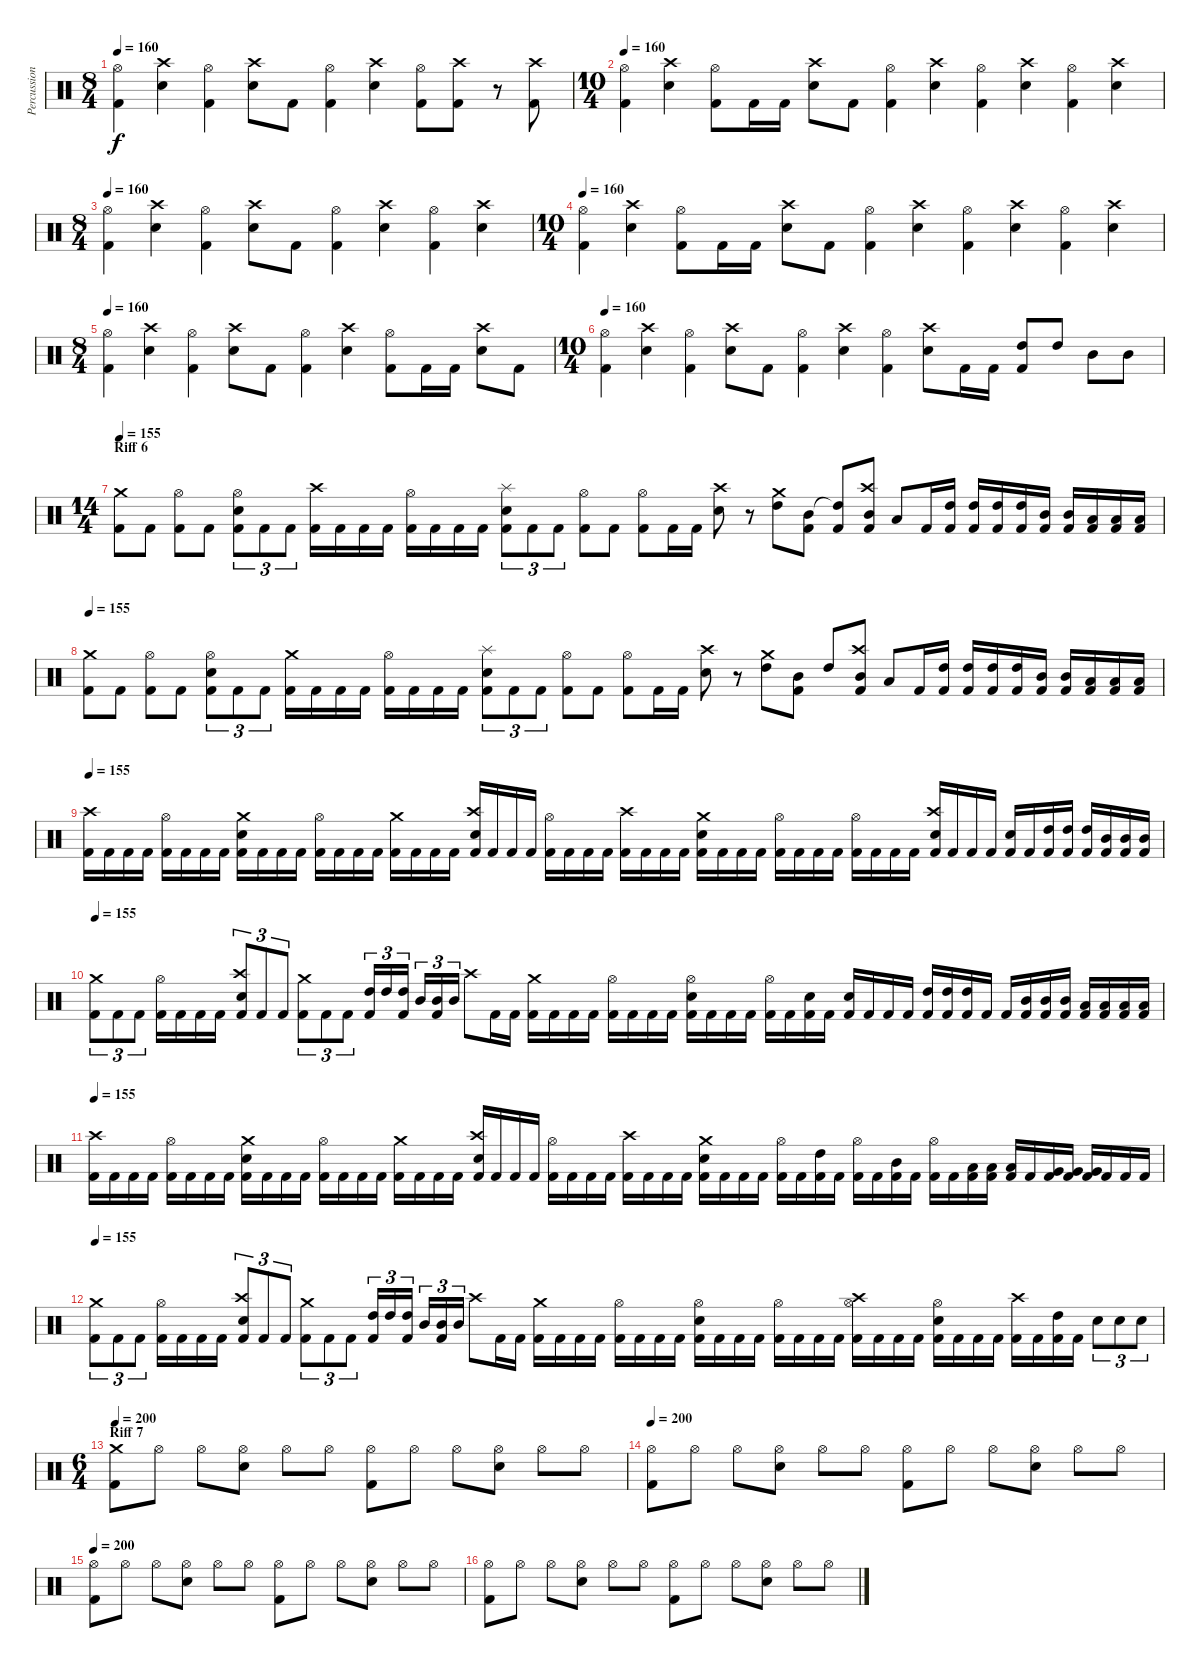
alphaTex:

\track ("Percussion" "Percussion") {instrument percussion}
\staff {score}
\articulation defaults
\ts (8 4)
\tempo 160
\clef neutral
\ks c
("Hi-Hat (open)" "Kick (hit) 2").4{dy f} ("Crash high (hit)" "Electric Snare (hit)").4 ("Hi-Hat (open)" "Kick (hit) 2").4 ("Crash high (hit)" "Electric Snare (hit)").8 "Kick (hit) 2".8 ("Hi-Hat (open)" "Kick (hit) 2").4 ("Crash high (hit)" "Electric Snare (hit)").4 ("Hi-Hat (open)" "Kick (hit) 2").8 ("Crash high (hit)" "Kick (hit) 2").8 r.8 ("Crash high (hit)" "Kick (hit) 2").8 |
\ts (10 4)
\tempo 160
("Hi-Hat (open)" "Kick (hit) 2").4 ("Crash high (hit)" "Electric Snare (hit)").4 ("Hi-Hat (open)" "Kick (hit) 2").8 "Kick (hit) 2".16 "Kick (hit) 2".16 ("Crash high (hit)" "Electric Snare (hit)").8 "Kick (hit) 2".8 ("Hi-Hat (open)" "Kick (hit) 2").4 ("Crash high (hit)" "Electric Snare (hit)").4 ("Hi-Hat (open)" "Kick (hit) 2").4 ("Crash high (hit)" "Electric Snare (hit)").4 ("Hi-Hat (open)" "Kick (hit) 2").4 ("Crash high (hit)" "Electric Snare (hit)").4 |
\ts (8 4)
\tempo 160
("Hi-Hat (open)" "Kick (hit) 2").4 ("Crash high (hit)" "Electric Snare (hit)").4 ("Hi-Hat (open)" "Kick (hit) 2").4 ("Crash high (hit)" "Electric Snare (hit)").8 "Kick (hit) 2".8 ("Hi-Hat (open)" "Kick (hit) 2").4 ("Crash high (hit)" "Electric Snare (hit)").4 ("Hi-Hat (open)" "Kick (hit) 2").4 ("Crash high (hit)" "Electric Snare (hit)").4 |
\ts (10 4)
\tempo 160
("Hi-Hat (open)" "Kick (hit) 2").4 ("Crash high (hit)" "Electric Snare (hit)").4 ("Hi-Hat (open)" "Kick (hit) 2").8 "Kick (hit) 2".16 "Kick (hit) 2".16 ("Crash high (hit)" "Electric Snare (hit)").8 "Kick (hit) 2".8 ("Hi-Hat (open)" "Kick (hit) 2").4 ("Crash high (hit)" "Electric Snare (hit)").4 ("Hi-Hat (open)" "Kick (hit) 2").4 ("Crash high (hit)" "Electric Snare (hit)").4 ("Hi-Hat (open)" "Kick (hit) 2").4 ("Crash high (hit)" "Electric Snare (hit)").4 |
\ts (8 4)
\tempo 160
("Hi-Hat (open)" "Kick (hit) 2").4 ("Crash high (hit)" "Electric Snare (hit)").4 ("Hi-Hat (open)" "Kick (hit) 2").4 ("Crash high (hit)" "Electric Snare (hit)").8 "Kick (hit) 2".8 ("Hi-Hat (open)" "Kick (hit) 2").4 ("Crash high (hit)" "Electric Snare (hit)").4 ("Hi-Hat (open)" "Kick (hit) 2").8 "Kick (hit) 2".16 "Kick (hit) 2".16 ("Crash high (hit)" "Electric Snare (hit)").8 "Kick (hit) 2".8 |
\ts (10 4)
\tempo 160
("Hi-Hat (open)" "Kick (hit) 2").4 ("Crash high (hit)" "Electric Snare (hit)").4 ("Hi-Hat (open)" "Kick (hit) 2").4 ("Crash high (hit)" "Electric Snare (hit)").8 "Kick (hit) 2".8 ("Hi-Hat (open)" "Kick (hit) 2").4 ("Crash high (hit)" "Electric Snare (hit)").4 ("Hi-Hat (open)" "Kick (hit) 2").4 ("Crash high (hit)" "Electric Snare (hit)").8 "Kick (hit) 2".16 "Kick (hit) 2".16 ("High Tom (hit)" "Kick (hit) 2").8 "High Tom (hit)".8 "Mid Tom (hit)".8 "Mid Tom (hit)".8 |
\ts (14 4)
\section ("" "Riff 6")
\tempo 155
("Crash medium (hit)" "Kick (hit) 2").8 "Kick (hit) 2".8 ("Hi-Hat (open)" "Kick (hit) 2").8 "Kick (hit) 2".8 ("Hi-Hat (open)" "Electric Snare (hit)" "Kick (hit) 2").8{tu (3 2)} "Kick (hit) 2".8{tu (3 2)} "Kick (hit) 2".8{tu (3 2)} ("Crash high (hit)" "Kick (hit) 2").16 "Kick (hit) 2".16 "Kick (hit) 2".16 "Kick (hit) 2".16 ("Hi-Hat (open)" "Kick (hit) 2").16 "Kick (hit) 2".16 "Kick (hit) 2".16 "Kick (hit) 2".16 ("Splash (hit)" "Electric Snare (hit)" "Kick (hit) 2").8{tu (3 2)} "Kick (hit) 2".8{tu (3 2)} "Kick (hit) 2".8{tu (3 2)} ("Hi-Hat (open)" "Kick (hit) 2").8 "Kick (hit) 2".8 ("Hi-Hat (open)" "Kick (hit) 2").8 "Kick (hit) 2".16 "Kick (hit) 2".16 ("Crash high (hit)" "Electric Snare (hit)").8 r.8 ("High Tom (hit)" "Crash medium (hit)").8 ("Mid Tom (hit)" "Kick (hit) 2").8 ("High Tom (hit)"{t} "Kick (hit) 2").8 ("Mid Tom (hit)" "Crash high (hit)" "Kick (hit) 2").8 "Low Tom (hit)".8 "Kick (hit) 2".16 ("High Tom (hit)" "Kick (hit) 2").16 ("High Tom (hit)" "Kick (hit) 2").16 ("High Tom (hit)" "Kick (hit) 2").16 ("High Tom (hit)" "Kick (hit) 2").16 ("Mid Tom (hit)" "Kick (hit) 2").16 ("Mid Tom (hit)" "Kick (hit) 2").16 ("Low Tom (hit)" "Kick (hit) 2").16 ("Low Tom (hit)" "Kick (hit) 2").16 ("Low Tom (hit)" "Kick (hit) 2").16 |
\tempo 155
("Crash medium (hit)" "Kick (hit) 2").8 "Kick (hit) 2".8 ("Hi-Hat (open)" "Kick (hit) 2").8 "Kick (hit) 2".8 ("Hi-Hat (open)" "Electric Snare (hit)" "Kick (hit) 2").8{tu (3 2)} "Kick (hit) 2".8{tu (3 2)} "Kick (hit) 2".8{tu (3 2)} ("Crash medium (hit)" "Kick (hit) 2").16 "Kick (hit) 2".16 "Kick (hit) 2".16 "Kick (hit) 2".16 ("Hi-Hat (open)" "Kick (hit) 2").16 "Kick (hit) 2".16 "Kick (hit) 2".16 "Kick (hit) 2".16 ("Splash (hit)" "Electric Snare (hit)" "Kick (hit) 2").8{tu (3 2)} "Kick (hit) 2".8{tu (3 2)} "Kick (hit) 2".8{tu (3 2)} ("Hi-Hat (open)" "Kick (hit) 2").8 "Kick (hit) 2".8 ("Hi-Hat (open)" "Kick (hit) 2").8 "Kick (hit) 2".16 "Kick (hit) 2".16 ("Crash high (hit)" "Electric Snare (hit)").8 r.8 ("High Tom (hit)" "Crash medium (hit)").8 ("Mid Tom (hit)" "Kick (hit) 2").8 "High Tom (hit)".8 ("Mid Tom (hit)" "Crash high (hit)" "Kick (hit) 2").8 "Low Tom (hit)".8 "Kick (hit) 2".16 ("High Tom (hit)" "Kick (hit) 2").16 ("High Tom (hit)" "Kick (hit) 2").16 ("High Tom (hit)" "Kick (hit) 2").16 ("High Tom (hit)" "Kick (hit) 2").16 ("Mid Tom (hit)" "Kick (hit) 2").16 ("Mid Tom (hit)" "Kick (hit) 2").16 ("Low Tom (hit)" "Kick (hit) 2").16 ("Low Tom (hit)" "Kick (hit) 2").16 ("Low Tom (hit)" "Kick (hit) 2").16 |
\tempo 155
("Crash high (hit)" "Kick (hit) 2").16 "Kick (hit) 2".16 "Kick (hit) 2".16 "Kick (hit) 2".16 ("Hi-Hat (open)" "Kick (hit) 2").16 "Kick (hit) 2".16 "Kick (hit) 2".16 "Kick (hit) 2".16 ("Crash medium (hit)" "Electric Snare (hit)" "Kick (hit) 2").16 "Kick (hit) 2".16 "Kick (hit) 2".16 "Kick (hit) 2".16 ("Hi-Hat (open)" "Kick (hit) 2").16 "Kick (hit) 2".16 "Kick (hit) 2".16 "Kick (hit) 2".16 ("Crash medium (hit)" "Kick (hit) 2").16 "Kick (hit) 2".16 "Kick (hit) 2".16 "Kick (hit) 2".16 ("Crash high (hit)" "Electric Snare (hit)" "Kick (hit) 2").16 "Kick (hit) 2".16 "Kick (hit) 2".16 "Kick (hit) 2".16 ("Hi-Hat (open)" "Kick (hit) 2").16 "Kick (hit) 2".16 "Kick (hit) 2".16 "Kick (hit) 2".16 ("Crash high (hit)" "Kick (hit) 2").16 "Kick (hit) 2".16 "Kick (hit) 2".16 "Kick (hit) 2".16 ("Crash medium (hit)" "Electric Snare (hit)" "Kick (hit) 2").16 "Kick (hit) 2".16 "Kick (hit) 2".16 "Kick (hit) 2".16 ("Hi-Hat (open)" "Kick (hit) 2").16 "Kick (hit) 2".16 "Kick (hit) 2".16 "Kick (hit) 2".16 ("Hi-Hat (open)" "Kick (hit) 2").16 "Kick (hit) 2".16 "Kick (hit) 2".16 "Kick (hit) 2".16 ("Electric Snare (hit)" "Crash high (hit)" "Kick (hit) 2").16 "Kick (hit) 2".16 "Kick (hit) 2".16 "Kick (hit) 2".16 ("Electric Snare (hit)" "Kick (hit) 2").16 "Kick (hit) 2".16 ("High Tom (hit)" "Kick (hit) 2").16 ("High Tom (hit)" "Kick (hit) 2").16 ("High Tom (hit)" "Kick (hit) 2").16 ("Mid Tom (hit)" "Kick (hit) 2").16 ("Mid Tom (hit)" "Kick (hit) 2").16 ("Mid Tom (hit)" "Kick (hit) 2").16 |
\tempo 155
("Crash medium (hit)" "Kick (hit) 2").8{tu (3 2)} "Kick (hit) 2".8{tu (3 2)} "Kick (hit) 2".8{tu (3 2)} ("Hi-Hat (open)" "Kick (hit) 2").16 "Kick (hit) 2".16 "Kick (hit) 2".16 "Kick (hit) 2".16 ("Crash high (hit)" "Electric Snare (hit)" "Kick (hit) 2").8{tu (3 2)} "Kick (hit) 2".8{tu (3 2)} "Kick (hit) 2".8{tu (3 2)} ("Crash medium (hit)" "Kick (hit) 2").8{tu (3 2)} "Kick (hit) 2".8{tu (3 2)} "Kick (hit) 2".8{tu (3 2)} ("High Tom (hit)" "Kick (hit) 2").16{tu (3 2)} "High Tom (hit)".16{tu (3 2)} ("High Tom (hit)" "Kick (hit) 2").16{tu (3 2)} "Mid Tom (hit)".16{tu (3 2)} ("Mid Tom (hit)" "Kick (hit) 2").16{tu (3 2)} "Mid Tom (hit)".16{tu (3 2)} "Crash high (hit)".8 "Kick (hit) 2".16 "Kick (hit) 2".16 ("Crash medium (hit)" "Kick (hit) 2").16 "Kick (hit) 2".16 "Kick (hit) 2".16 "Kick (hit) 2".16 ("Hi-Hat (open)" "Kick (hit) 2").16 "Kick (hit) 2".16 "Kick (hit) 2".16 "Kick (hit) 2".16 ("Hi-Hat (open)" "Electric Snare (hit)" "Kick (hit) 2").16 "Kick (hit) 2".16 "Kick (hit) 2".16 "Kick (hit) 2".16 ("Hi-Hat (open)" "Kick (hit) 2").16 "Kick (hit) 2".16 ("Electric Snare (hit)" "Kick (hit) 2").16 "Kick (hit) 2".16 ("Electric Snare (hit)" "Kick (hit) 2").16 "Kick (hit) 2".16 "Kick (hit) 2".16 "Kick (hit) 2".16 ("High Tom (hit)" "Kick (hit) 2").16 ("High Tom (hit)" "Kick (hit) 2").16 ("High Tom (hit)" "Kick (hit) 2").16 "Kick (hit) 2".16 "Kick (hit) 2".16 ("Mid Tom (hit)" "Kick (hit) 2").16 ("Mid Tom (hit)" "Kick (hit) 2").16 ("Mid Tom (hit)" "Kick (hit) 2").16 ("Low Tom (hit)" "Kick (hit) 2").16 ("Low Tom (hit)" "Kick (hit) 2").16 ("Low Tom (hit)" "Kick (hit) 2").16 ("Low Tom (hit)" "Kick (hit) 2").16 |
\tempo 155
("Crash high (hit)" "Kick (hit) 2").16 "Kick (hit) 2".16 "Kick (hit) 2".16 "Kick (hit) 2".16 ("Hi-Hat (open)" "Kick (hit) 2").16 "Kick (hit) 2".16 "Kick (hit) 2".16 "Kick (hit) 2".16 ("Crash medium (hit)" "Electric Snare (hit)" "Kick (hit) 2").16 "Kick (hit) 2".16 "Kick (hit) 2".16 "Kick (hit) 2".16 ("Hi-Hat (open)" "Kick (hit) 2").16 "Kick (hit) 2".16 "Kick (hit) 2".16 "Kick (hit) 2".16 ("Crash medium (hit)" "Kick (hit) 2").16 "Kick (hit) 2".16 "Kick (hit) 2".16 "Kick (hit) 2".16 ("Crash high (hit)" "Electric Snare (hit)" "Kick (hit) 2").16 "Kick (hit) 2".16 "Kick (hit) 2".16 "Kick (hit) 2".16 ("Hi-Hat (open)" "Kick (hit) 2").16 "Kick (hit) 2".16 "Kick (hit) 2".16 "Kick (hit) 2".16 ("Crash high (hit)" "Kick (hit) 2").16 "Kick (hit) 2".16 "Kick (hit) 2".16 "Kick (hit) 2".16 ("Crash medium (hit)" "Electric Snare (hit)" "Kick (hit) 2").16 "Kick (hit) 2".16 "Kick (hit) 2".16 "Kick (hit) 2".16 ("Hi-Hat (open)" "Kick (hit) 2").16 "Kick (hit) 2".16 ("High Tom (hit)" "Kick (hit) 2").16 "Kick (hit) 2".16 ("Hi-Hat (open)" "Kick (hit) 2").16 "Kick (hit) 2".16 ("Mid Tom (hit)" "Kick (hit) 2").16 "Kick (hit) 2".16 ("Hi-Hat (open)" "Kick (hit) 2").16 "Kick (hit) 2".16 ("Low Tom (hit)" "Kick (hit) 2").16 ("Low Tom (hit)" "Kick (hit) 2").16 ("Low Tom (hit)" "Kick (hit) 2").16 "Kick (hit) 2".16 ("Very Low Tom (hit)" "Kick (hit) 2").16 ("Very Low Tom (hit)" "Kick (hit) 2").16 ("Very Low Tom (hit)" "Kick (hit) 2").16 "Kick (hit) 2".16 "Kick (hit) 2".16 "Kick (hit) 2".16 |
\tempo 155
("Crash medium (hit)" "Kick (hit) 2").8{tu (3 2)} "Kick (hit) 2".8{tu (3 2)} "Kick (hit) 2".8{tu (3 2)} ("Hi-Hat (open)" "Kick (hit) 2").16 "Kick (hit) 2".16 "Kick (hit) 2".16 "Kick (hit) 2".16 ("Crash high (hit)" "Electric Snare (hit)" "Kick (hit) 2").8{tu (3 2)} "Kick (hit) 2".8{tu (3 2)} "Kick (hit) 2".8{tu (3 2)} ("Crash medium (hit)" "Kick (hit) 2").8{tu (3 2)} "Kick (hit) 2".8{tu (3 2)} "Kick (hit) 2".8{tu (3 2)} ("High Tom (hit)" "Kick (hit) 2").16{tu (3 2)} "High Tom (hit)".16{tu (3 2)} ("High Tom (hit)" "Kick (hit) 2").16{tu (3 2)} "Mid Tom (hit)".16{tu (3 2)} ("Mid Tom (hit)" "Kick (hit) 2").16{tu (3 2)} "Mid Tom (hit)".16{tu (3 2)} "Crash high (hit)".8 "Kick (hit) 2".16 "Kick (hit) 2".16 ("Crash medium (hit)" "Kick (hit) 2").16 "Kick (hit) 2".16 "Kick (hit) 2".16 "Kick (hit) 2".16 ("Hi-Hat (open)" "Kick (hit) 2").16 "Kick (hit) 2".16 "Kick (hit) 2".16 "Kick (hit) 2".16 ("Hi-Hat (open)" "Electric Snare (hit)" "Kick (hit) 2").16 "Kick (hit) 2".16 "Kick (hit) 2".16 "Kick (hit) 2".16 ("Hi-Hat (open)" "Kick (hit) 2").16 "Kick (hit) 2".16 "Kick (hit) 2".16 "Kick (hit) 2".16 ("Crash high (hit)" "Hi-Hat (open)" "Kick (hit) 2").16 "Kick (hit) 2".16 "Kick (hit) 2".16 "Kick (hit) 2".16 ("Hi-Hat (open)" "Electric Snare (hit)" "Kick (hit) 2").16 "Kick (hit) 2".16 "Kick (hit) 2".16 "Kick (hit) 2".16 ("Crash high (hit)" "Kick (hit) 2").16 "Kick (hit) 2".16 ("High Tom (hit)" "Kick (hit) 2").16 "Kick (hit) 2".16 "Electric Snare (hit)".8{tu (3 2)} "Electric Snare (hit)".8{tu (3 2)} "Electric Snare (hit)".8{tu (3 2)} |
\ts (6 4)
\section ("" "Riff 7")
\tempo 200
("Crash medium (hit)" "Kick (hit) 2").8 "Hi-Hat (open)".8 "Hi-Hat (open)".8 ("Hi-Hat (open)" "Electric Snare (hit)").8 "Hi-Hat (open)".8 "Hi-Hat (open)".8 ("Hi-Hat (open)" "Kick (hit) 2").8 "Hi-Hat (open)".8 "Hi-Hat (open)".8 ("Hi-Hat (open)" "Electric Snare (hit)").8 "Hi-Hat (open)".8 "Hi-Hat (open)".8 |
\tempo 200
("Hi-Hat (open)" "Kick (hit) 2").8 "Hi-Hat (open)".8 "Hi-Hat (open)".8 ("Hi-Hat (open)" "Electric Snare (hit)").8 "Hi-Hat (open)".8 "Hi-Hat (open)".8 ("Hi-Hat (open)" "Kick (hit) 2").8 "Hi-Hat (open)".8 "Hi-Hat (open)".8 ("Hi-Hat (open)" "Electric Snare (hit)").8 "Hi-Hat (open)".8 "Hi-Hat (open)".8 |
\tempo 200
("Hi-Hat (open)" "Kick (hit) 2").8 "Hi-Hat (open)".8 "Hi-Hat (open)".8 ("Hi-Hat (open)" "Electric Snare (hit)").8 "Hi-Hat (open)".8 "Hi-Hat (open)".8 ("Hi-Hat (open)" "Kick (hit) 2").8 "Hi-Hat (open)".8 "Hi-Hat (open)".8 ("Hi-Hat (open)" "Electric Snare (hit)").8 "Hi-Hat (open)".8 "Hi-Hat (open)".8 |
("Hi-Hat (open)" "Kick (hit) 2").8 "Hi-Hat (open)".8 "Hi-Hat (open)".8 ("Hi-Hat (open)" "Electric Snare (hit)").8 "Hi-Hat (open)".8 "Hi-Hat (open)".8 ("Hi-Hat (open)" "Kick (hit) 2").8 "Hi-Hat (open)".8 "Hi-Hat (open)".8 ("Hi-Hat (open)" "Electric Snare (hit)").8 "Hi-Hat (open)".8 "Hi-Hat (open)".8
